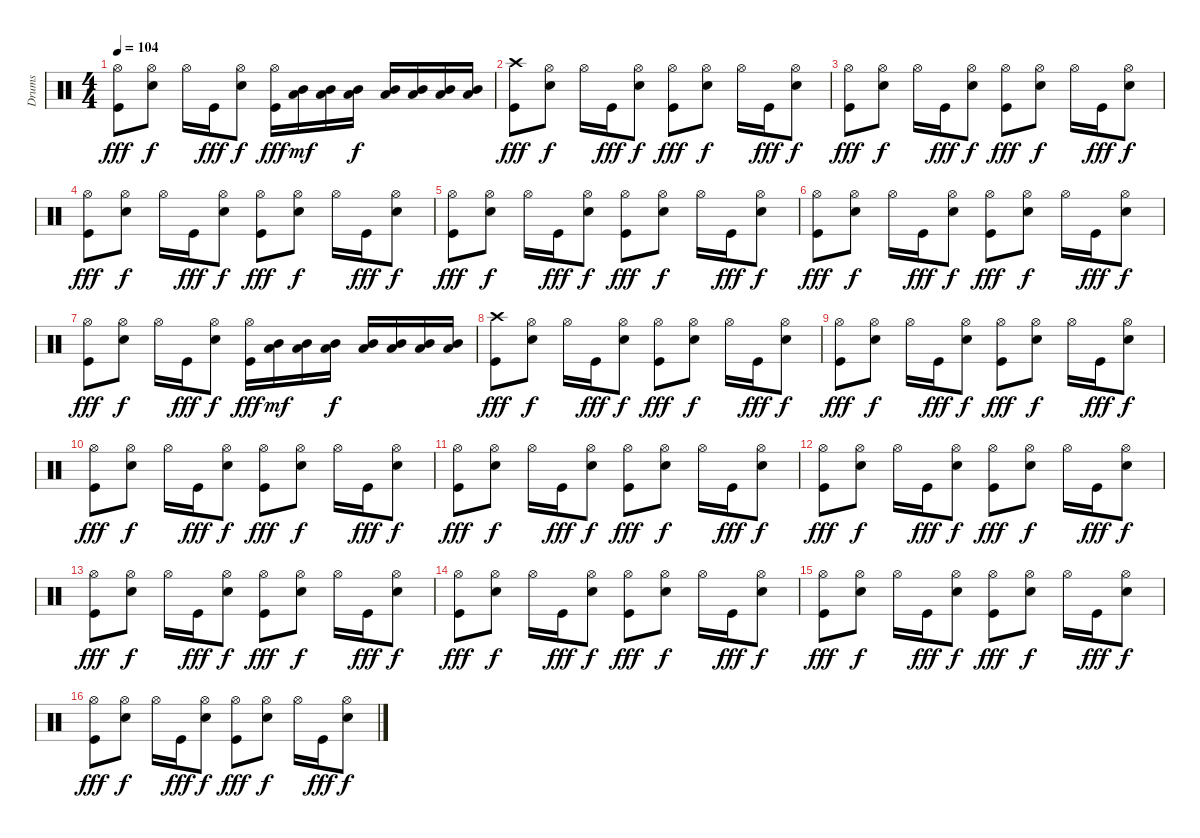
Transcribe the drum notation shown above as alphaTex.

\track ("Drums" "Drums") {instrument percussion}
\staff {score}
\articulation defaults
\ts (4 4)
\tempo 104
\clef neutral
\ks c
("Hi-Hat (open)" "Kick (hit)").8{dy fff} ("Hi-Hat (open)" "Snare (hit) 2").8{dy f} "Hi-Hat (open)".16 "Kick (hit)".16{dy fff} ("Hi-Hat (open)" "Snare (hit) 2").8{dy f} ("Hi-Hat (open)" "Kick (hit)").16{dy fff} ("Low Tom (hit)" "Mid Tom (hit)").16{dy mf} ("Low Tom (hit)" "Mid Tom (hit)").16 ("Low Tom (hit)" "Mid Tom (hit)").16{dy f} ("Low Tom (hit)" "Mid Tom (hit)").16 ("Low Tom (hit)" "Mid Tom (hit)").16 ("Low Tom (hit)" "Mid Tom (hit)").16 ("Low Tom (hit)" "Mid Tom (hit)").16 |
("Crash high (hit)" "Kick (hit)").8{dy fff} ("Hi-Hat (open)" "Snare (hit) 2").8{dy f} "Hi-Hat (open)".16 "Kick (hit)".16{dy fff} ("Hi-Hat (open)" "Snare (hit) 2").8{dy f} ("Hi-Hat (open)" "Kick (hit)").8{dy fff} ("Hi-Hat (open)" "Snare (hit) 2").8{dy f} "Hi-Hat (open)".16 "Kick (hit)".16{dy fff} ("Hi-Hat (open)" "Snare (hit) 2").8{dy f} |
("Hi-Hat (open)" "Kick (hit)").8{dy fff} ("Hi-Hat (open)" "Snare (hit) 2").8{dy f} "Hi-Hat (open)".16 "Kick (hit)".16{dy fff} ("Hi-Hat (open)" "Snare (hit) 2").8{dy f} ("Hi-Hat (open)" "Kick (hit)").8{dy fff} ("Hi-Hat (open)" "Snare (hit) 2").8{dy f} "Hi-Hat (open)".16 "Kick (hit)".16{dy fff} ("Hi-Hat (open)" "Snare (hit) 2").8{dy f} |
("Hi-Hat (open)" "Kick (hit)").8{dy fff} ("Hi-Hat (open)" "Snare (hit) 2").8{dy f} "Hi-Hat (open)".16 "Kick (hit)".16{dy fff} ("Hi-Hat (open)" "Snare (hit) 2").8{dy f} ("Hi-Hat (open)" "Kick (hit)").8{dy fff} ("Hi-Hat (open)" "Snare (hit) 2").8{dy f} "Hi-Hat (open)".16 "Kick (hit)".16{dy fff} ("Hi-Hat (open)" "Snare (hit) 2").8{dy f} |
("Hi-Hat (open)" "Kick (hit)").8{dy fff} ("Hi-Hat (open)" "Snare (hit) 2").8{dy f} "Hi-Hat (open)".16 "Kick (hit)".16{dy fff} ("Hi-Hat (open)" "Snare (hit) 2").8{dy f} ("Hi-Hat (open)" "Kick (hit)").8{dy fff} ("Hi-Hat (open)" "Snare (hit) 2").8{dy f} "Hi-Hat (open)".16 "Kick (hit)".16{dy fff} ("Hi-Hat (open)" "Snare (hit) 2").8{dy f} |
("Hi-Hat (open)" "Kick (hit)").8{dy fff} ("Hi-Hat (open)" "Snare (hit) 2").8{dy f} "Hi-Hat (open)".16 "Kick (hit)".16{dy fff} ("Hi-Hat (open)" "Snare (hit) 2").8{dy f} ("Hi-Hat (open)" "Kick (hit)").8{dy fff} ("Hi-Hat (open)" "Snare (hit) 2").8{dy f} "Hi-Hat (open)".16 "Kick (hit)".16{dy fff} ("Hi-Hat (open)" "Snare (hit) 2").8{dy f} |
("Hi-Hat (open)" "Kick (hit)").8{dy fff} ("Hi-Hat (open)" "Snare (hit) 2").8{dy f} "Hi-Hat (open)".16 "Kick (hit)".16{dy fff} ("Hi-Hat (open)" "Snare (hit) 2").8{dy f} ("Hi-Hat (open)" "Kick (hit)").16{dy fff} ("Low Tom (hit)" "Mid Tom (hit)").16{dy mf} ("Low Tom (hit)" "Mid Tom (hit)").16 ("Low Tom (hit)" "Mid Tom (hit)").16{dy f} ("Low Tom (hit)" "Mid Tom (hit)").16 ("Low Tom (hit)" "Mid Tom (hit)").16 ("Low Tom (hit)" "Mid Tom (hit)").16 ("Low Tom (hit)" "Mid Tom (hit)").16 |
("Crash high (hit)" "Kick (hit)").8{dy fff} ("Hi-Hat (open)" "Snare (hit) 2").8{dy f} "Hi-Hat (open)".16 "Kick (hit)".16{dy fff} ("Hi-Hat (open)" "Snare (hit) 2").8{dy f} ("Hi-Hat (open)" "Kick (hit)").8{dy fff} ("Hi-Hat (open)" "Snare (hit) 2").8{dy f} "Hi-Hat (open)".16 "Kick (hit)".16{dy fff} ("Hi-Hat (open)" "Snare (hit) 2").8{dy f} |
("Hi-Hat (open)" "Kick (hit)").8{dy fff} ("Hi-Hat (open)" "Snare (hit) 2").8{dy f} "Hi-Hat (open)".16 "Kick (hit)".16{dy fff} ("Hi-Hat (open)" "Snare (hit) 2").8{dy f} ("Hi-Hat (open)" "Kick (hit)").8{dy fff} ("Hi-Hat (open)" "Snare (hit) 2").8{dy f} "Hi-Hat (open)".16 "Kick (hit)".16{dy fff} ("Hi-Hat (open)" "Snare (hit) 2").8{dy f} |
("Hi-Hat (open)" "Kick (hit)").8{dy fff} ("Hi-Hat (open)" "Snare (hit) 2").8{dy f} "Hi-Hat (open)".16 "Kick (hit)".16{dy fff} ("Hi-Hat (open)" "Snare (hit) 2").8{dy f} ("Hi-Hat (open)" "Kick (hit)").8{dy fff} ("Hi-Hat (open)" "Snare (hit) 2").8{dy f} "Hi-Hat (open)".16 "Kick (hit)".16{dy fff} ("Hi-Hat (open)" "Snare (hit) 2").8{dy f} |
("Hi-Hat (open)" "Kick (hit)").8{dy fff} ("Hi-Hat (open)" "Snare (hit) 2").8{dy f} "Hi-Hat (open)".16 "Kick (hit)".16{dy fff} ("Hi-Hat (open)" "Snare (hit) 2").8{dy f} ("Hi-Hat (open)" "Kick (hit)").8{dy fff} ("Hi-Hat (open)" "Snare (hit) 2").8{dy f} "Hi-Hat (open)".16 "Kick (hit)".16{dy fff} ("Hi-Hat (open)" "Snare (hit) 2").8{dy f} |
("Hi-Hat (open)" "Kick (hit)").8{dy fff} ("Hi-Hat (open)" "Snare (hit) 2").8{dy f} "Hi-Hat (open)".16 "Kick (hit)".16{dy fff} ("Hi-Hat (open)" "Snare (hit) 2").8{dy f} ("Hi-Hat (open)" "Kick (hit)").8{dy fff} ("Hi-Hat (open)" "Snare (hit) 2").8{dy f} "Hi-Hat (open)".16 "Kick (hit)".16{dy fff} ("Hi-Hat (open)" "Snare (hit) 2").8{dy f} |
("Hi-Hat (open)" "Kick (hit)").8{dy fff} ("Hi-Hat (open)" "Snare (hit) 2").8{dy f} "Hi-Hat (open)".16 "Kick (hit)".16{dy fff} ("Hi-Hat (open)" "Snare (hit) 2").8{dy f} ("Hi-Hat (open)" "Kick (hit)").8{dy fff} ("Hi-Hat (open)" "Snare (hit) 2").8{dy f} "Hi-Hat (open)".16 "Kick (hit)".16{dy fff} ("Hi-Hat (open)" "Snare (hit) 2").8{dy f} |
("Hi-Hat (open)" "Kick (hit)").8{dy fff} ("Hi-Hat (open)" "Snare (hit) 2").8{dy f} "Hi-Hat (open)".16 "Kick (hit)".16{dy fff} ("Hi-Hat (open)" "Snare (hit) 2").8{dy f} ("Hi-Hat (open)" "Kick (hit)").8{dy fff} ("Hi-Hat (open)" "Snare (hit) 2").8{dy f} "Hi-Hat (open)".16 "Kick (hit)".16{dy fff} ("Hi-Hat (open)" "Snare (hit) 2").8{dy f} |
("Hi-Hat (open)" "Kick (hit)").8{dy fff} ("Hi-Hat (open)" "Snare (hit) 2").8{dy f} "Hi-Hat (open)".16 "Kick (hit)".16{dy fff} ("Hi-Hat (open)" "Snare (hit) 2").8{dy f} ("Hi-Hat (open)" "Kick (hit)").8{dy fff} ("Hi-Hat (open)" "Snare (hit) 2").8{dy f} "Hi-Hat (open)".16 "Kick (hit)".16{dy fff} ("Hi-Hat (open)" "Snare (hit) 2").8{dy f} |
("Hi-Hat (open)" "Kick (hit)").8{dy fff} ("Hi-Hat (open)" "Snare (hit) 2").8{dy f} "Hi-Hat (open)".16 "Kick (hit)".16{dy fff} ("Hi-Hat (open)" "Snare (hit) 2").8{dy f} ("Hi-Hat (open)" "Kick (hit)").8{dy fff} ("Hi-Hat (open)" "Snare (hit) 2").8{dy f} "Hi-Hat (open)".16 "Kick (hit)".16{dy fff} ("Hi-Hat (open)" "Snare (hit) 2").8{dy f}
